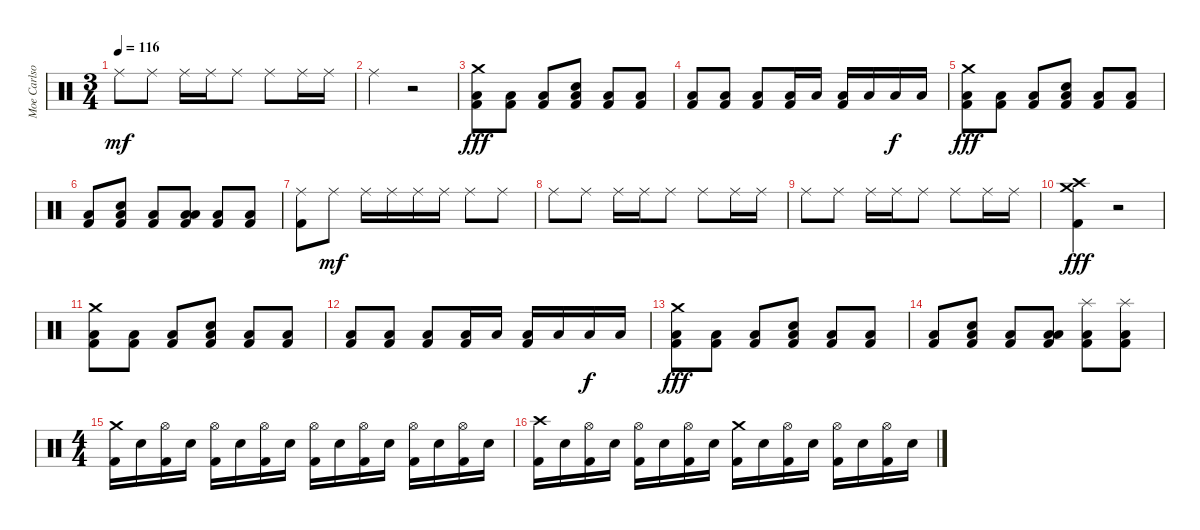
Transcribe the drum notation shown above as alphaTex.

\track ("Moe Carlson" "Moe Carlso") {instrument percussion}
\staff {score}
\articulation defaults
\ts (3 4)
\tempo 116
\clef neutral
\ks c "Ride (middle)".8{dy mf} "Ride (middle)".8 "Ride (middle)".16 "Ride (middle)".16 "Ride (middle)".8 "Ride (middle)".8 "Ride (middle)".16 "Ride (middle)".16
|
"Ride (middle)".4 r.2 |
("Crash medium (hit)" "Low Floor Tom (hit)" "Kick (hit) 2").8{dy fff} ("Low Floor Tom (hit)" "Kick (hit) 2").8 ("Low Floor Tom (hit)" "Kick (hit) 2").8 ("Electric Snare (hit)" "Low Floor Tom (hit)" "Kick (hit) 2").8 ("Low Floor Tom (hit)" "Kick (hit) 2").8 ("Low Floor Tom (hit)" "Kick (hit) 2").8 |
("Low Floor Tom (hit)" "Kick (hit) 2").8 ("Low Floor Tom (hit)" "Kick (hit) 2").8 ("Low Floor Tom (hit)" "Kick (hit) 2").8 ("Low Tom (hit)" "Kick (hit) 2").16 "Low Tom (hit)".16 ("Low Tom (hit)" "Kick (hit) 2").16 "Low Tom (hit)".16 "Low Floor Tom (hit)".16{dy f} "Low Floor Tom (hit)".16 |
("Crash medium (hit)" "Low Floor Tom (hit)" "Kick (hit) 2").8{dy fff} ("Low Floor Tom (hit)" "Kick (hit) 2").8 ("Low Floor Tom (hit)" "Kick (hit) 2").8 ("Electric Snare (hit)" "Low Floor Tom (hit)" "Kick (hit) 2").8 ("Low Floor Tom (hit)" "Kick (hit) 2").8 ("Low Floor Tom (hit)" "Kick (hit) 2").8 |
("Low Floor Tom (hit)" "Kick (hit) 2").8 ("Electric Snare (hit)" "Low Floor Tom (hit)" "Kick (hit) 2").8 ("Low Floor Tom (hit)" "Kick (hit) 2").8 ("Low Tom (hit)" "Low Floor Tom (hit)" "Kick (hit) 2").8 ("Low Floor Tom (hit)" "Kick (hit) 2").8 ("Low Floor Tom (hit)" "Kick (hit) 2").8 |
("Ride (middle)" "Kick (hit) 2").8 "Ride (middle)".8{dy mf} "Ride (middle)".16 "Ride (middle)".16 "Ride (middle)".16 "Ride (middle)".16 "Ride (middle)".8 "Ride (middle)".8 |
"Ride (middle)".8 "Ride (middle)".8 "Ride (middle)".16 "Ride (middle)".16 "Ride (middle)".8 "Ride (middle)".8 "Ride (middle)".16 "Ride (middle)".16 |
"Ride (middle)".8 "Ride (middle)".8 "Ride (middle)".16 "Ride (middle)".16 "Ride (middle)".8 "Ride (middle)".8 "Ride (middle)".16 "Ride (middle)".16 |
("Crash high (hit)" "Crash medium (hit)" "Kick (hit) 2").4{dy fff} r.2 |
("Crash medium (hit)" "Low Floor Tom (hit)" "Kick (hit) 2").8 ("Low Floor Tom (hit)" "Kick (hit) 2").8 ("Low Floor Tom (hit)" "Kick (hit) 2").8 ("Electric Snare (hit)" "Low Floor Tom (hit)" "Kick (hit) 2").8 ("Low Floor Tom (hit)" "Kick (hit) 2").8 ("Low Floor Tom (hit)" "Kick (hit) 2").8 |
("Low Floor Tom (hit)" "Kick (hit) 2").8 ("Low Floor Tom (hit)" "Kick (hit) 2").8 ("Low Floor Tom (hit)" "Kick (hit) 2").8 ("Low Tom (hit)" "Kick (hit) 2").16 "Low Tom (hit)".16 ("Low Tom (hit)" "Kick (hit) 2").16 "Low Tom (hit)".16 "Low Floor Tom (hit)".16{dy f} "Low Floor Tom (hit)".16 |
("Crash medium (hit)" "Low Floor Tom (hit)" "Kick (hit) 2").8{dy fff} ("Low Floor Tom (hit)" "Kick (hit) 2").8 ("Low Floor Tom (hit)" "Kick (hit) 2").8 ("Electric Snare (hit)" "Low Floor Tom (hit)" "Kick (hit) 2").8 ("Low Floor Tom (hit)" "Kick (hit) 2").8 ("Low Floor Tom (hit)" "Kick (hit) 2").8 |
("Low Floor Tom (hit)" "Kick (hit) 2").8 ("Electric Snare (hit)" "Low Floor Tom (hit)" "Kick (hit) 2").8 ("Low Floor Tom (hit)" "Kick (hit) 2").8 ("Low Tom (hit)" "Low Floor Tom (hit)" "Kick (hit) 2").8 ("Splash (hit)" "Low Floor Tom (hit)" "Kick (hit) 2").8 ("Splash (hit)" "Low Floor Tom (hit)" "Kick (hit) 2").8 |
\ts (4 4)
("Crash medium (hit)" "Kick (hit) 2").16 "Electric Snare (hit)".16 ("Hi-Hat (open)" "Kick (hit) 2").16 "Electric Snare (hit)".16 ("Hi-Hat (open)" "Kick (hit) 2").16 "Electric Snare (hit)".16 ("Hi-Hat (open)" "Kick (hit) 2").16 "Electric Snare (hit)".16 ("Hi-Hat (open)" "Kick (hit) 2").16 "Electric Snare (hit)".16 ("Hi-Hat (open)" "Kick (hit) 2").16 "Electric Snare (hit)".16 ("Hi-Hat (open)" "Kick (hit) 2").16 "Electric Snare (hit)".16 ("Hi-Hat (open)" "Kick (hit) 2").16 "Electric Snare (hit)".16 |
("Crash high (hit)" "Kick (hit) 2").16 "Electric Snare (hit)".16 ("Hi-Hat (open)" "Kick (hit) 2").16 "Electric Snare (hit)".16 ("Hi-Hat (open)" "Kick (hit) 2").16 "Electric Snare (hit)".16 ("Hi-Hat (open)" "Kick (hit) 2").16 "Electric Snare (hit)".16 ("Crash medium (hit)" "Kick (hit) 2").16 "Electric Snare (hit)".16 ("Hi-Hat (open)" "Kick (hit) 2").16 "Electric Snare (hit)".16 ("Hi-Hat (open)" "Kick (hit) 2").16 "Electric Snare (hit)".16 ("Hi-Hat (open)" "Kick (hit) 2").16 "Electric Snare (hit)".16
